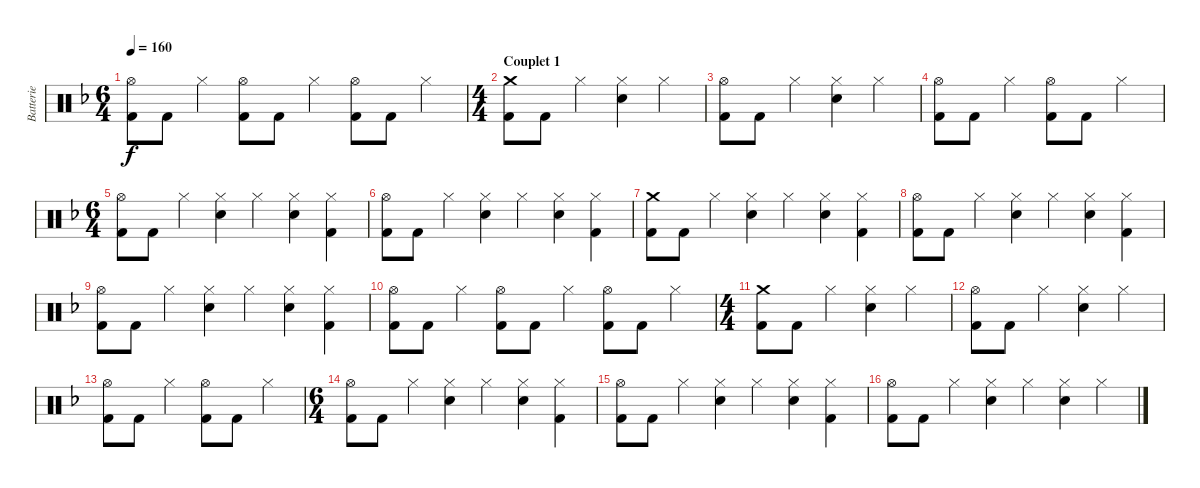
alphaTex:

\track ("Batterie" "Batterie") {instrument percussion}
\staff {score}
\articulation defaults
\ts (6 4)
\tempo 160
\clef neutral
\ks f
("Hi-Hat (open)" "Kick (hit) 2").8{dy f} "Kick (hit) 2".8 "Hi-Hat (closed)".4 ("Hi-Hat (open)" "Kick (hit) 2").8 "Kick (hit) 2".8 "Hi-Hat (closed)".4 ("Hi-Hat (open)" "Kick (hit) 2").8 "Kick (hit) 2".8 "Hi-Hat (closed)".4 |
\ts (4 4)
\section ("" "Couplet 1")
("Crash medium (hit)" "Kick (hit) 2").8 "Kick (hit) 2".8 "Hi-Hat (closed)".4 ("Hi-Hat (closed)" "Electric Snare (hit)").4 "Hi-Hat (closed)".4 |
("Hi-Hat (open)" "Kick (hit) 2").8 "Kick (hit) 2".8 "Hi-Hat (closed)".4 ("Hi-Hat (closed)" "Electric Snare (hit)").4 "Hi-Hat (closed)".4 |
("Hi-Hat (open)" "Kick (hit) 2").8 "Kick (hit) 2".8 "Hi-Hat (closed)".4 ("Hi-Hat (open)" "Kick (hit) 2").8 "Kick (hit) 2".8 "Hi-Hat (closed)".4 |
\ts (6 4)
("Hi-Hat (open)" "Kick (hit) 2").8 "Kick (hit) 2".8 "Hi-Hat (closed)".4 ("Hi-Hat (closed)" "Electric Snare (hit)").4 "Hi-Hat (closed)".4 ("Hi-Hat (closed)" "Electric Snare (hit)").4 ("Hi-Hat (closed)" "Kick (hit) 2").4 |
("Hi-Hat (open)" "Kick (hit) 2").8 "Kick (hit) 2".8 "Hi-Hat (closed)".4 ("Hi-Hat (closed)" "Electric Snare (hit)").4 "Hi-Hat (closed)".4 ("Hi-Hat (closed)" "Electric Snare (hit)").4 ("Hi-Hat (closed)" "Kick (hit) 2").4 |
("Crash medium (hit)" "Kick (hit) 2").8 "Kick (hit) 2".8 "Hi-Hat (closed)".4 ("Hi-Hat (closed)" "Electric Snare (hit)").4 "Hi-Hat (closed)".4 ("Hi-Hat (closed)" "Electric Snare (hit)").4 ("Hi-Hat (closed)" "Kick (hit) 2").4 |
("Hi-Hat (open)" "Kick (hit) 2").8 "Kick (hit) 2".8 "Hi-Hat (closed)".4 ("Hi-Hat (closed)" "Electric Snare (hit)").4 "Hi-Hat (closed)".4 ("Hi-Hat (closed)" "Electric Snare (hit)").4 ("Hi-Hat (closed)" "Kick (hit) 2").4 |
("Hi-Hat (open)" "Kick (hit) 2").8 "Kick (hit) 2".8 "Hi-Hat (closed)".4 ("Hi-Hat (closed)" "Electric Snare (hit)").4 "Hi-Hat (closed)".4 ("Hi-Hat (closed)" "Electric Snare (hit)").4 ("Hi-Hat (closed)" "Kick (hit) 2").4 |
("Hi-Hat (open)" "Kick (hit) 2").8 "Kick (hit) 2".8 "Hi-Hat (closed)".4 ("Hi-Hat (open)" "Kick (hit) 2").8 "Kick (hit) 2".8 "Hi-Hat (closed)".4 ("Hi-Hat (open)" "Kick (hit) 2").8 "Kick (hit) 2".8 "Hi-Hat (closed)".4 |
\ts (4 4)
("Crash medium (hit)" "Kick (hit) 2").8 "Kick (hit) 2".8 "Hi-Hat (closed)".4 ("Hi-Hat (closed)" "Electric Snare (hit)").4 "Hi-Hat (closed)".4 |
("Hi-Hat (open)" "Kick (hit) 2").8 "Kick (hit) 2".8 "Hi-Hat (closed)".4 ("Hi-Hat (closed)" "Electric Snare (hit)").4 "Hi-Hat (closed)".4 |
("Hi-Hat (open)" "Kick (hit) 2").8 "Kick (hit) 2".8 "Hi-Hat (closed)".4 ("Hi-Hat (open)" "Kick (hit) 2").8 "Kick (hit) 2".8 "Hi-Hat (closed)".4 |
\ts (6 4)
("Hi-Hat (open)" "Kick (hit) 2").8 "Kick (hit) 2".8 "Hi-Hat (closed)".4 ("Hi-Hat (closed)" "Electric Snare (hit)").4 "Hi-Hat (closed)".4 ("Hi-Hat (closed)" "Electric Snare (hit)").4 ("Hi-Hat (closed)" "Kick (hit) 2").4 |
("Hi-Hat (open)" "Kick (hit) 2").8 "Kick (hit) 2".8 "Hi-Hat (closed)".4 ("Hi-Hat (closed)" "Electric Snare (hit)").4 "Hi-Hat (closed)".4 ("Hi-Hat (closed)" "Electric Snare (hit)").4 ("Hi-Hat (closed)" "Kick (hit) 2").4 |
("Hi-Hat (open)" "Kick (hit) 2").8 "Kick (hit) 2".8 "Hi-Hat (closed)".4 ("Hi-Hat (closed)" "Electric Snare (hit)").4 "Hi-Hat (closed)".4 ("Hi-Hat (closed)" "Electric Snare (hit)").4 "Hi-Hat (closed)".4
